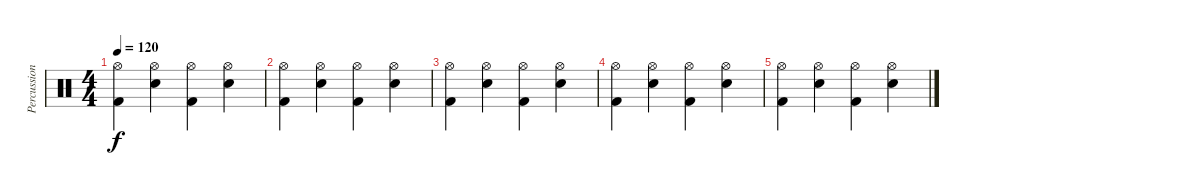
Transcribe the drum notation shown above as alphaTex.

\track ("Percussions" "Percussion") {instrument percussion}
\staff {score}
\articulation defaults
\ts (4 4)
\tempo 120
\clef neutral
\ks c
("Kick (hit) 2" "Hi-Hat (open)").4{dy f} ("Electric Snare (hit)" "Hi-Hat (open)").4 ("Kick (hit) 2" "Hi-Hat (open)").4 ("Electric Snare (hit)" "Hi-Hat (open)").4 |
("Kick (hit) 2" "Hi-Hat (open)").4 ("Electric Snare (hit)" "Hi-Hat (open)").4 ("Kick (hit) 2" "Hi-Hat (open)").4 ("Electric Snare (hit)" "Hi-Hat (open)").4 |
("Kick (hit) 2" "Hi-Hat (open)").4 ("Electric Snare (hit)" "Hi-Hat (open)").4 ("Kick (hit) 2" "Hi-Hat (open)").4 ("Electric Snare (hit)" "Hi-Hat (open)").4 |
("Kick (hit) 2" "Hi-Hat (open)").4 ("Electric Snare (hit)" "Hi-Hat (open)").4 ("Kick (hit) 2" "Hi-Hat (open)").4 ("Electric Snare (hit)" "Hi-Hat (open)").4 |
("Kick (hit) 2" "Hi-Hat (open)").4 ("Electric Snare (hit)" "Hi-Hat (open)").4 ("Kick (hit) 2" "Hi-Hat (open)").4 ("Electric Snare (hit)" "Hi-Hat (open)").4
